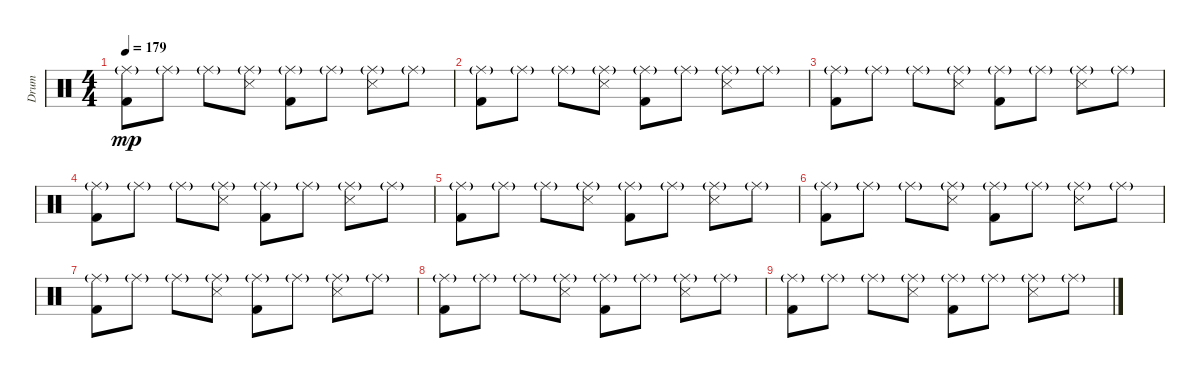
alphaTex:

\track ("Drum" "Drum") {instrument percussion}
\staff {score}
\articulation defaults
\ts (4 4)
\tempo 179
\clef neutral
\ks c
("Ride (middle)"{g} "Kick (hit) 2").8{dy mp} "Ride (middle)"{g}.8 "Ride (middle)"{g}.8 ("Ride (middle)"{g} "Snare (side stick) 3").8 ("Ride (middle)"{g} "Kick (hit) 2").8 "Ride (middle)"{g}.8 ("Ride (middle)"{g} "Snare (side stick) 3").8 "Ride (middle)"{g}.8 |
("Ride (middle)"{g} "Kick (hit) 2").8 "Ride (middle)"{g}.8 "Ride (middle)"{g}.8 ("Ride (middle)"{g} "Snare (side stick) 3").8 ("Ride (middle)"{g} "Kick (hit) 2").8 "Ride (middle)"{g}.8 ("Ride (middle)"{g} "Snare (side stick) 3").8 "Ride (middle)"{g}.8 |
("Ride (middle)"{g} "Kick (hit) 2").8 "Ride (middle)"{g}.8 "Ride (middle)"{g}.8 ("Ride (middle)"{g} "Snare (side stick) 3").8 ("Ride (middle)"{g} "Kick (hit) 2").8 "Ride (middle)"{g}.8 ("Ride (middle)"{g} "Snare (side stick) 3").8 "Ride (middle)"{g}.8 |
("Ride (middle)"{g} "Kick (hit) 2").8 "Ride (middle)"{g}.8 "Ride (middle)"{g}.8 ("Ride (middle)"{g} "Snare (side stick) 3").8 ("Ride (middle)"{g} "Kick (hit) 2").8 "Ride (middle)"{g}.8 ("Ride (middle)"{g} "Snare (side stick) 3").8 "Ride (middle)"{g}.8 |
("Ride (middle)"{g} "Kick (hit) 2").8 "Ride (middle)"{g}.8 "Ride (middle)"{g}.8 ("Ride (middle)"{g} "Snare (side stick) 3").8 ("Ride (middle)"{g} "Kick (hit) 2").8 "Ride (middle)"{g}.8 ("Ride (middle)"{g} "Snare (side stick) 3").8 "Ride (middle)"{g}.8 |
("Ride (middle)"{g} "Kick (hit) 2").8 "Ride (middle)"{g}.8 "Ride (middle)"{g}.8 ("Ride (middle)"{g} "Snare (side stick) 3").8 ("Ride (middle)"{g} "Kick (hit) 2").8 "Ride (middle)"{g}.8 ("Ride (middle)"{g} "Snare (side stick) 3").8 "Ride (middle)"{g}.8 |
("Ride (middle)"{g} "Kick (hit) 2").8 "Ride (middle)"{g}.8 "Ride (middle)"{g}.8 ("Ride (middle)"{g} "Snare (side stick) 3").8 ("Ride (middle)"{g} "Kick (hit) 2").8 "Ride (middle)"{g}.8 ("Ride (middle)"{g} "Snare (side stick) 3").8 "Ride (middle)"{g}.8 |
("Ride (middle)"{g} "Kick (hit) 2").8 "Ride (middle)"{g}.8 "Ride (middle)"{g}.8 ("Ride (middle)"{g} "Snare (side stick) 3").8 ("Ride (middle)"{g} "Kick (hit) 2").8 "Ride (middle)"{g}.8 ("Ride (middle)"{g} "Snare (side stick) 3").8 "Ride (middle)"{g}.8 |
("Ride (middle)"{g} "Kick (hit) 2").8 "Ride (middle)"{g}.8 "Ride (middle)"{g}.8 ("Ride (middle)"{g} "Snare (side stick) 3").8 ("Ride (middle)"{g} "Kick (hit) 2").8 "Ride (middle)"{g}.8 ("Ride (middle)"{g} "Snare (side stick) 3").8 "Ride (middle)"{g}.8
